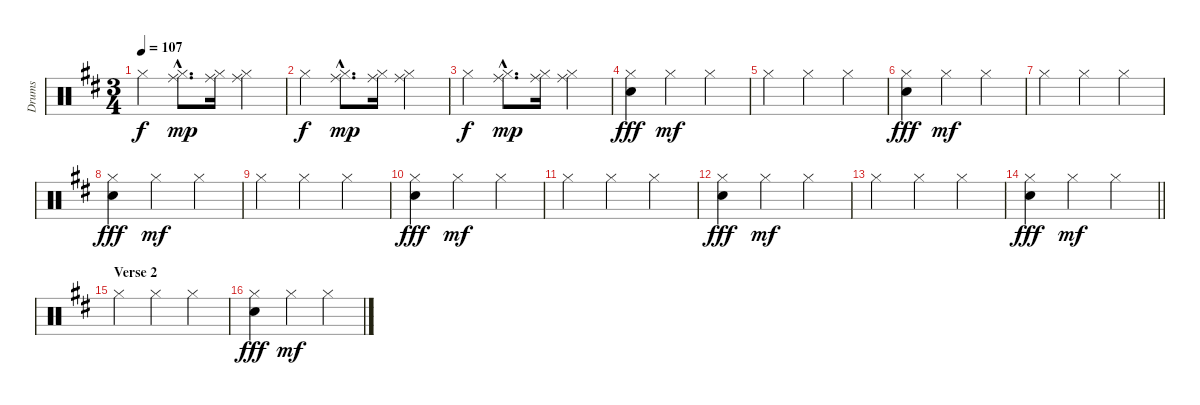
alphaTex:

\track ("Drums" "Drums") {instrument percussion}
\staff {score}
\articulation defaults
\ts (3 4)
\tempo 107
\clef neutral
\ks d "Hi-Hat (closed)".4{dy f}
("Hi-Hat (closed)"{hac} "Ride (middle)"{hac}).8{d dy mp} ("Hi-Hat (closed)" "Ride (middle)").16 ("Hi-Hat (closed)" "Ride (middle)").4 |
"Hi-Hat (closed)".4{dy f} ("Hi-Hat (closed)"{hac} "Ride (middle)"{hac}).8{d dy mp} ("Hi-Hat (closed)" "Ride (middle)").16 ("Hi-Hat (closed)" "Ride (middle)").4 |
"Hi-Hat (closed)".4{dy f} ("Hi-Hat (closed)"{hac} "Ride (middle)"{hac}).8{d dy mp} ("Hi-Hat (closed)" "Ride (middle)").16 ("Hi-Hat (closed)" "Ride (middle)").4 |
("Hi-Hat (closed)" "Electric Snare (hit)").4{dy fff} "Hi-Hat (closed)".4{dy mf} "Hi-Hat (closed)".4 |
"Hi-Hat (closed)".4 "Hi-Hat (closed)".4 "Hi-Hat (closed)".4 |
("Hi-Hat (closed)" "Electric Snare (hit)").4{dy fff} "Hi-Hat (closed)".4{dy mf} "Hi-Hat (closed)".4 |
"Hi-Hat (closed)".4 "Hi-Hat (closed)".4 "Hi-Hat (closed)".4 |
("Hi-Hat (closed)" "Electric Snare (hit)").4{dy fff} "Hi-Hat (closed)".4{dy mf} "Hi-Hat (closed)".4 |
"Hi-Hat (closed)".4 "Hi-Hat (closed)".4 "Hi-Hat (closed)".4 |
("Hi-Hat (closed)" "Electric Snare (hit)").4{dy fff} "Hi-Hat (closed)".4{dy mf} "Hi-Hat (closed)".4 |
"Hi-Hat (closed)".4 "Hi-Hat (closed)".4 "Hi-Hat (closed)".4 |
("Hi-Hat (closed)" "Electric Snare (hit)").4{dy fff} "Hi-Hat (closed)".4{dy mf} "Hi-Hat (closed)".4 |
"Hi-Hat (closed)".4 "Hi-Hat (closed)".4 "Hi-Hat (closed)".4 |
\barLineRight lightlight
("Hi-Hat (closed)" "Electric Snare (hit)").4{dy fff} "Hi-Hat (closed)".4{dy mf} "Hi-Hat (closed)".4 |
\section ("" "Verse 2")
"Hi-Hat (closed)".4 "Hi-Hat (closed)".4 "Hi-Hat (closed)".4 |
("Hi-Hat (closed)" "Electric Snare (hit)").4{dy fff} "Hi-Hat (closed)".4{dy mf} "Hi-Hat (closed)".4
